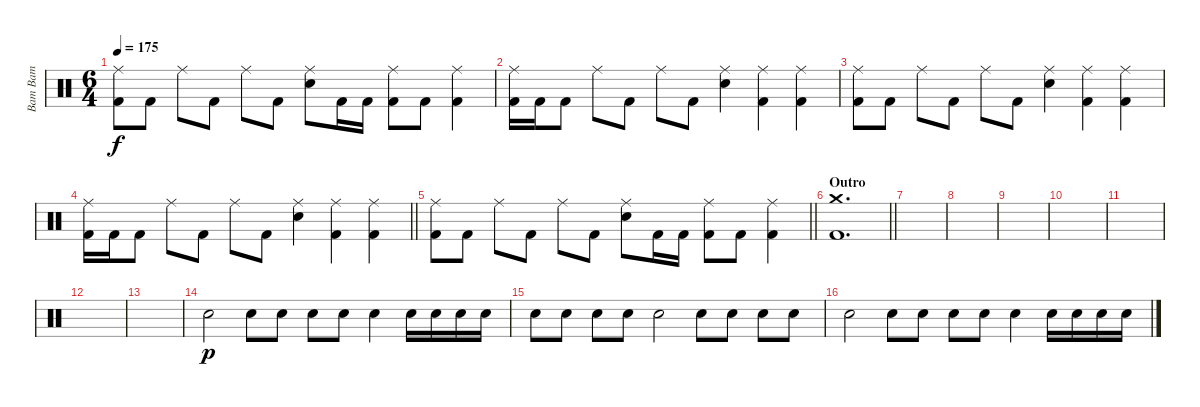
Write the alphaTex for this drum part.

\track ("Bam Bam" "Bam Bam") {instrument percussion}
\staff {score}
\articulation defaults
\ts (6 4)
\tempo 175
\clef neutral
\ks c
("Ride (middle)" "Kick (hit) 2").8{dy f} "Kick (hit) 2".8 "Ride (middle)".8 "Kick (hit) 2".8 "Ride (middle)".8 "Kick (hit) 2".8 ("Ride (middle)" "Electric Snare (hit)").8 "Kick (hit) 2".16 "Kick (hit) 2".16 ("Ride (middle)" "Kick (hit) 2").8 "Kick (hit) 2".8 ("Ride (middle)" "Kick (hit) 2").4 |
("Ride (middle)" "Kick (hit) 2").16 "Kick (hit) 2".16 "Kick (hit) 2".8 "Ride (middle)".8 "Kick (hit) 2".8 "Ride (middle)".8 "Kick (hit) 2".8 ("Ride (middle)" "Electric Snare (hit)").4 ("Ride (middle)" "Kick (hit) 2").4 ("Ride (middle)" "Kick (hit) 2").4 |
("Ride (middle)" "Kick (hit) 2").8 "Kick (hit) 2".8 "Ride (middle)".8 "Kick (hit) 2".8 "Ride (middle)".8 "Kick (hit) 2".8 ("Ride (middle)" "Electric Snare (hit)").4 ("Ride (middle)" "Kick (hit) 2").4 ("Ride (middle)" "Kick (hit) 2").4 |
\barLineRight lightlight
("Ride (middle)" "Kick (hit) 2").16 "Kick (hit) 2".16 "Kick (hit) 2".8 "Ride (middle)".8 "Kick (hit) 2".8 "Ride (middle)".8 "Kick (hit) 2".8 ("Ride (middle)" "Electric Snare (hit)").4 ("Ride (middle)" "Kick (hit) 2").4 ("Ride (middle)" "Kick (hit) 2").4 |
\barLineRight lightlight
("Ride (middle)" "Kick (hit) 2").8 "Kick (hit) 2".8 "Ride (middle)".8 "Kick (hit) 2".8 "Ride (middle)".8 "Kick (hit) 2".8 ("Ride (middle)" "Electric Snare (hit)").8 "Kick (hit) 2".16 "Kick (hit) 2".16 ("Ride (middle)" "Kick (hit) 2").8 "Kick (hit) 2".8 ("Ride (middle)" "Kick (hit) 2").4 |
\section ("" "Outro")
\barLineRight lightlight
("Crash medium (hit)" "Kick (hit) 2").1{d} |
|
|
|
|
|
|
|
"Electric Snare (hit)".2{dy p} "Electric Snare (hit)".8 "Electric Snare (hit)".8 "Electric Snare (hit)".8 "Electric Snare (hit)".8 "Electric Snare (hit)".4 "Electric Snare (hit)".16 "Electric Snare (hit)".16 "Electric Snare (hit)".16 "Electric Snare (hit)".16 |
"Electric Snare (hit)".8 "Electric Snare (hit)".8 "Electric Snare (hit)".8 "Electric Snare (hit)".8 "Electric Snare (hit)".2 "Electric Snare (hit)".8 "Electric Snare (hit)".8 "Electric Snare (hit)".8 "Electric Snare (hit)".8 |
"Electric Snare (hit)".2 "Electric Snare (hit)".8 "Electric Snare (hit)".8 "Electric Snare (hit)".8 "Electric Snare (hit)".8 "Electric Snare (hit)".4 "Electric Snare (hit)".16 "Electric Snare (hit)".16 "Electric Snare (hit)".16 "Electric Snare (hit)".16
